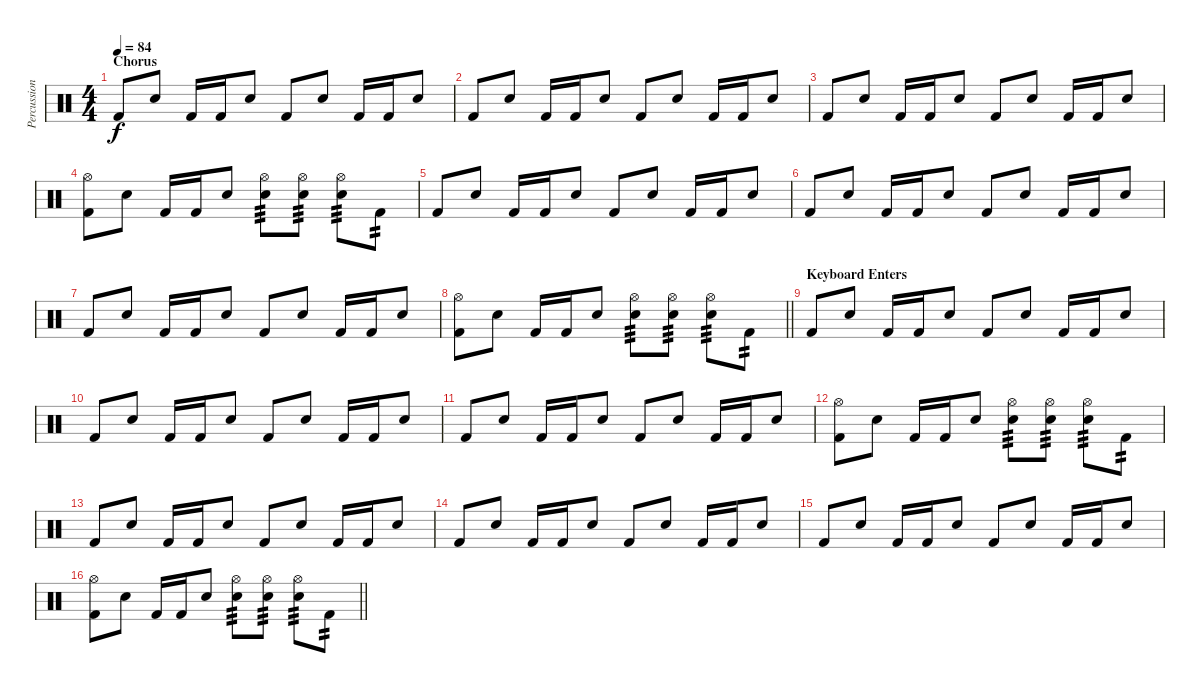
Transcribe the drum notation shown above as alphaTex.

\track ("Percussion" "Percussion") {instrument percussion}
\staff {score}
\articulation defaults
\ts (4 4)
\section ("" "Chorus")
\tempo 84
\clef neutral
\ks c "Kick (hit) 2".8{dy f} "Snare (hit) 2".8 "Kick (hit) 2".16 "Kick (hit) 2".16 "Snare (hit) 2".8 "Kick (hit) 2".8 "Snare (hit) 2".8 "Kick (hit) 2".16 "Kick (hit) 2".16 "Snare (hit) 2".8
|
"Kick (hit) 2".8 "Snare (hit) 2".8 "Kick (hit) 2".16 "Kick (hit) 2".16 "Snare (hit) 2".8 "Kick (hit) 2".8 "Snare (hit) 2".8 "Kick (hit) 2".16 "Kick (hit) 2".16 "Snare (hit) 2".8 |
"Kick (hit) 2".8 "Snare (hit) 2".8 "Kick (hit) 2".16 "Kick (hit) 2".16 "Snare (hit) 2".8 "Kick (hit) 2".8 "Snare (hit) 2".8 "Kick (hit) 2".16 "Kick (hit) 2".16 "Snare (hit) 2".8 |
("Hi-Hat (open)" "Kick (hit) 2").8 "Snare (hit) 2".8 "Kick (hit) 2".16 "Kick (hit) 2".16 "Snare (hit) 2".8 ("Hi-Hat (open)" "Snare (hit) 2").8{tp 3} ("Hi-Hat (open)" "Snare (hit) 2").8{tp 3} ("Hi-Hat (open)" "Snare (hit) 2").8{tp 3} "Kick (hit) 2".8{tp 2} |
"Kick (hit) 2".8 "Snare (hit) 2".8 "Kick (hit) 2".16 "Kick (hit) 2".16 "Snare (hit) 2".8 "Kick (hit) 2".8 "Snare (hit) 2".8 "Kick (hit) 2".16 "Kick (hit) 2".16 "Snare (hit) 2".8 |
"Kick (hit) 2".8 "Snare (hit) 2".8 "Kick (hit) 2".16 "Kick (hit) 2".16 "Snare (hit) 2".8 "Kick (hit) 2".8 "Snare (hit) 2".8 "Kick (hit) 2".16 "Kick (hit) 2".16 "Snare (hit) 2".8 |
"Kick (hit) 2".8 "Snare (hit) 2".8 "Kick (hit) 2".16 "Kick (hit) 2".16 "Snare (hit) 2".8 "Kick (hit) 2".8 "Snare (hit) 2".8 "Kick (hit) 2".16 "Kick (hit) 2".16 "Snare (hit) 2".8 |
\barLineRight lightlight
("Hi-Hat (open)" "Kick (hit) 2").8 "Snare (hit) 2".8 "Kick (hit) 2".16 "Kick (hit) 2".16 "Snare (hit) 2".8 ("Hi-Hat (open)" "Snare (hit) 2").8{tp 3} ("Hi-Hat (open)" "Snare (hit) 2").8{tp 3} ("Hi-Hat (open)" "Snare (hit) 2").8{tp 3} "Kick (hit) 2".8{tp 2} |
\section ("" "Keyboard Enters")
"Kick (hit) 2".8 "Snare (hit) 2".8 "Kick (hit) 2".16 "Kick (hit) 2".16 "Snare (hit) 2".8 "Kick (hit) 2".8 "Snare (hit) 2".8 "Kick (hit) 2".16 "Kick (hit) 2".16 "Snare (hit) 2".8 |
"Kick (hit) 2".8 "Snare (hit) 2".8 "Kick (hit) 2".16 "Kick (hit) 2".16 "Snare (hit) 2".8 "Kick (hit) 2".8 "Snare (hit) 2".8 "Kick (hit) 2".16 "Kick (hit) 2".16 "Snare (hit) 2".8 |
"Kick (hit) 2".8 "Snare (hit) 2".8 "Kick (hit) 2".16 "Kick (hit) 2".16 "Snare (hit) 2".8 "Kick (hit) 2".8 "Snare (hit) 2".8 "Kick (hit) 2".16 "Kick (hit) 2".16 "Snare (hit) 2".8 |
("Hi-Hat (open)" "Kick (hit) 2").8 "Snare (hit) 2".8 "Kick (hit) 2".16 "Kick (hit) 2".16 "Snare (hit) 2".8 ("Hi-Hat (open)" "Snare (hit) 2").8{tp 3} ("Hi-Hat (open)" "Snare (hit) 2").8{tp 3} ("Hi-Hat (open)" "Snare (hit) 2").8{tp 3} "Kick (hit) 2".8{tp 2} |
"Kick (hit) 2".8 "Snare (hit) 2".8 "Kick (hit) 2".16 "Kick (hit) 2".16 "Snare (hit) 2".8 "Kick (hit) 2".8 "Snare (hit) 2".8 "Kick (hit) 2".16 "Kick (hit) 2".16 "Snare (hit) 2".8 |
"Kick (hit) 2".8 "Snare (hit) 2".8 "Kick (hit) 2".16 "Kick (hit) 2".16 "Snare (hit) 2".8 "Kick (hit) 2".8 "Snare (hit) 2".8 "Kick (hit) 2".16 "Kick (hit) 2".16 "Snare (hit) 2".8 |
"Kick (hit) 2".8 "Snare (hit) 2".8 "Kick (hit) 2".16 "Kick (hit) 2".16 "Snare (hit) 2".8 "Kick (hit) 2".8 "Snare (hit) 2".8 "Kick (hit) 2".16 "Kick (hit) 2".16 "Snare (hit) 2".8 |
\barLineRight lightlight
("Hi-Hat (open)" "Kick (hit) 2").8 "Snare (hit) 2".8 "Kick (hit) 2".16 "Kick (hit) 2".16 "Snare (hit) 2".8 ("Hi-Hat (open)" "Snare (hit) 2").8{tp 3} ("Hi-Hat (open)" "Snare (hit) 2").8{tp 3} ("Hi-Hat (open)" "Snare (hit) 2").8{tp 3} "Kick (hit) 2".8{tp 2}
